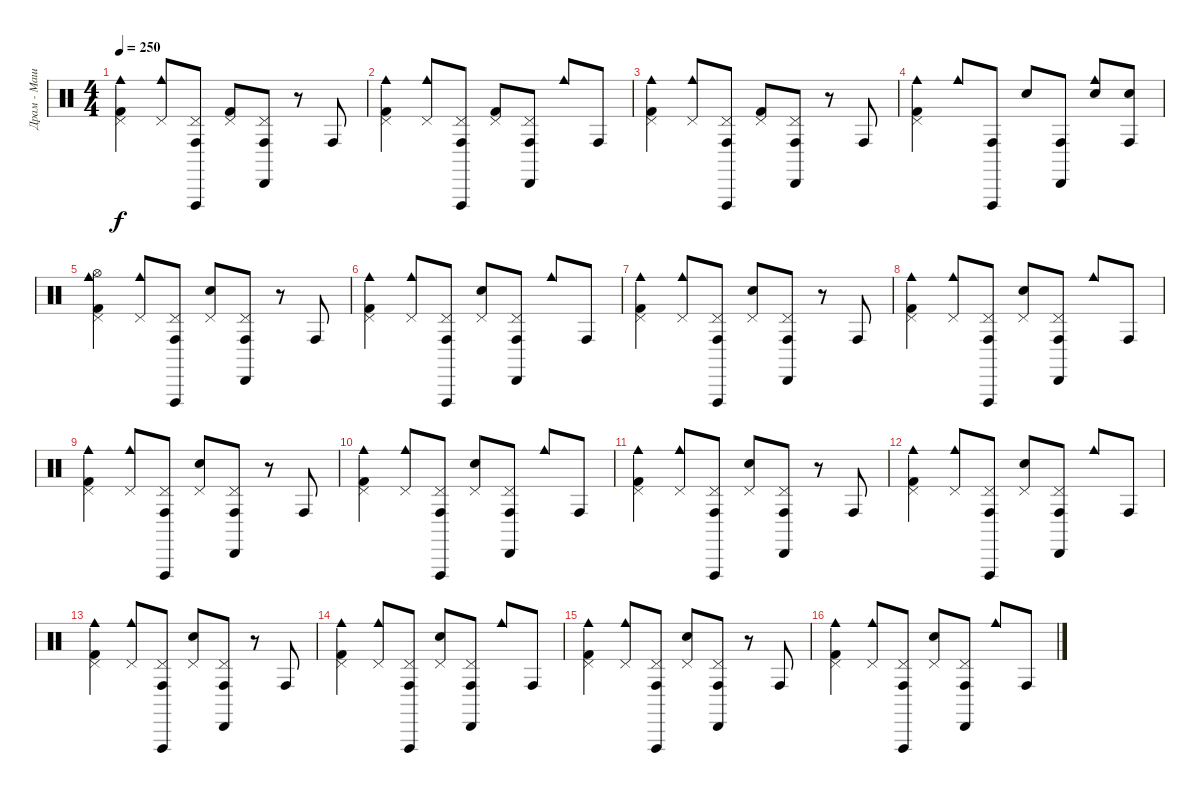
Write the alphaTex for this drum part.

\track ("Драм - Машина" "Драм - Маш") {instrument percussion}
\staff {score}
\articulation defaults
\ts (4 4)
\tempo 250
\clef neutral
\ks c
("Cowbell medium (hit)" "Pedal Hi-Hat (hit)" "Kick (hit) 2").4{dy f} ("Cowbell medium (hit)" "Pedal Hi-Hat (hit)").8 ("Conga high (hit)" "Vibraslap (hit)" "Pedal Hi-Hat (hit)").8 ("Pedal Hi-Hat (hit)" "Kick (hit) 2").8 ("Cabasa (hit)" "Conga high (hit)" "Pedal Hi-Hat (hit)").8 r.8 "Conga high (hit)".8 |
("Cowbell medium (hit)" "Pedal Hi-Hat (hit)" "Kick (hit) 2").4 ("Cowbell medium (hit)" "Pedal Hi-Hat (hit)").8 ("Conga high (hit)" "Vibraslap (hit)" "Pedal Hi-Hat (hit)").8 ("Pedal Hi-Hat (hit)" "Kick (hit) 2").8 ("Cabasa (hit)" "Conga high (hit)" "Pedal Hi-Hat (hit)").8 "Cowbell medium (hit)".8 "Conga high (hit)".8 |
("Cowbell medium (hit)" "Pedal Hi-Hat (hit)" "Kick (hit) 2").4 ("Cowbell medium (hit)" "Pedal Hi-Hat (hit)").8 ("Conga high (hit)" "Vibraslap (hit)" "Pedal Hi-Hat (hit)").8 ("Pedal Hi-Hat (hit)" "Kick (hit) 2").8 ("Cabasa (hit)" "Conga high (hit)" "Pedal Hi-Hat (hit)").8 r.8 "Conga high (hit)".8 |
("Cowbell medium (hit)" "Pedal Hi-Hat (hit)" "Kick (hit) 2").4 "Cowbell medium (hit)".8 ("Conga high (hit)" "Vibraslap (hit)").8 "Snare (hit) 2".8 ("Cabasa (hit)" "Conga high (hit)").8 ("Cowbell medium (hit)" "Snare (hit) 2").8 ("Conga high (hit)" "Snare (hit) 2").8 |
("Cowbell medium (hit)" "Hi-Hat (open)" "Pedal Hi-Hat (hit)" "Kick (hit) 2").4 ("Cowbell medium (hit)" "Pedal Hi-Hat (hit)").8 ("Conga high (hit)" "Vibraslap (hit)" "Pedal Hi-Hat (hit)").8 ("Pedal Hi-Hat (hit)" "Snare (hit) 2").8 ("Cabasa (hit)" "Conga high (hit)" "Pedal Hi-Hat (hit)").8 r.8 "Conga high (hit)".8 |
("Cowbell medium (hit)" "Pedal Hi-Hat (hit)" "Kick (hit) 2").4 ("Cowbell medium (hit)" "Pedal Hi-Hat (hit)").8 ("Conga high (hit)" "Vibraslap (hit)" "Pedal Hi-Hat (hit)").8 ("Pedal Hi-Hat (hit)" "Snare (hit) 2").8 ("Cabasa (hit)" "Conga high (hit)" "Pedal Hi-Hat (hit)").8 "Cowbell medium (hit)".8 "Conga high (hit)".8 |
("Cowbell medium (hit)" "Pedal Hi-Hat (hit)" "Kick (hit) 2").4 ("Cowbell medium (hit)" "Pedal Hi-Hat (hit)").8 ("Conga high (hit)" "Vibraslap (hit)" "Pedal Hi-Hat (hit)").8 ("Pedal Hi-Hat (hit)" "Snare (hit) 2").8 ("Cabasa (hit)" "Conga high (hit)" "Pedal Hi-Hat (hit)").8 r.8 "Conga high (hit)".8 |
("Cowbell medium (hit)" "Pedal Hi-Hat (hit)" "Kick (hit) 2").4 ("Cowbell medium (hit)" "Pedal Hi-Hat (hit)").8 ("Conga high (hit)" "Vibraslap (hit)" "Pedal Hi-Hat (hit)").8 ("Pedal Hi-Hat (hit)" "Snare (hit) 2").8 ("Cabasa (hit)" "Conga high (hit)" "Pedal Hi-Hat (hit)").8 "Cowbell medium (hit)".8 "Conga high (hit)".8 |
("Cowbell medium (hit)" "Pedal Hi-Hat (hit)" "Kick (hit) 2").4 ("Cowbell medium (hit)" "Pedal Hi-Hat (hit)").8 ("Conga high (hit)" "Vibraslap (hit)" "Pedal Hi-Hat (hit)").8 ("Pedal Hi-Hat (hit)" "Snare (hit) 2").8 ("Cabasa (hit)" "Conga high (hit)" "Pedal Hi-Hat (hit)").8 r.8 "Conga high (hit)".8 |
("Cowbell medium (hit)" "Pedal Hi-Hat (hit)" "Kick (hit) 2").4 ("Cowbell medium (hit)" "Pedal Hi-Hat (hit)").8 ("Conga high (hit)" "Vibraslap (hit)" "Pedal Hi-Hat (hit)").8 ("Pedal Hi-Hat (hit)" "Snare (hit) 2").8 ("Cabasa (hit)" "Conga high (hit)" "Pedal Hi-Hat (hit)").8 "Cowbell medium (hit)".8 "Conga high (hit)".8 |
("Cowbell medium (hit)" "Pedal Hi-Hat (hit)" "Kick (hit) 2").4 ("Cowbell medium (hit)" "Pedal Hi-Hat (hit)").8 ("Conga high (hit)" "Vibraslap (hit)" "Pedal Hi-Hat (hit)").8 ("Pedal Hi-Hat (hit)" "Snare (hit) 2").8 ("Cabasa (hit)" "Conga high (hit)" "Pedal Hi-Hat (hit)").8 r.8 "Conga high (hit)".8 |
("Cowbell medium (hit)" "Pedal Hi-Hat (hit)" "Kick (hit) 2").4 ("Cowbell medium (hit)" "Pedal Hi-Hat (hit)").8 ("Conga high (hit)" "Vibraslap (hit)" "Pedal Hi-Hat (hit)").8 ("Pedal Hi-Hat (hit)" "Snare (hit) 2").8 ("Cabasa (hit)" "Conga high (hit)" "Pedal Hi-Hat (hit)").8 "Cowbell medium (hit)".8 "Conga high (hit)".8 |
("Cowbell medium (hit)" "Pedal Hi-Hat (hit)" "Kick (hit) 2").4 ("Cowbell medium (hit)" "Pedal Hi-Hat (hit)").8 ("Conga high (hit)" "Vibraslap (hit)" "Pedal Hi-Hat (hit)").8 ("Pedal Hi-Hat (hit)" "Snare (hit) 2").8 ("Cabasa (hit)" "Conga high (hit)" "Pedal Hi-Hat (hit)").8 r.8 "Conga high (hit)".8 |
("Cowbell medium (hit)" "Pedal Hi-Hat (hit)" "Kick (hit) 2").4 ("Cowbell medium (hit)" "Pedal Hi-Hat (hit)").8 ("Conga high (hit)" "Vibraslap (hit)" "Pedal Hi-Hat (hit)").8 ("Pedal Hi-Hat (hit)" "Snare (hit) 2").8 ("Cabasa (hit)" "Conga high (hit)" "Pedal Hi-Hat (hit)").8 "Cowbell medium (hit)".8 "Conga high (hit)".8 |
("Cowbell medium (hit)" "Pedal Hi-Hat (hit)" "Kick (hit) 2").4 ("Cowbell medium (hit)" "Pedal Hi-Hat (hit)").8 ("Conga high (hit)" "Vibraslap (hit)" "Pedal Hi-Hat (hit)").8 ("Pedal Hi-Hat (hit)" "Snare (hit) 2").8 ("Cabasa (hit)" "Conga high (hit)" "Pedal Hi-Hat (hit)").8 r.8 "Conga high (hit)".8 |
("Cowbell medium (hit)" "Pedal Hi-Hat (hit)" "Kick (hit) 2").4 ("Cowbell medium (hit)" "Pedal Hi-Hat (hit)").8 ("Conga high (hit)" "Vibraslap (hit)" "Pedal Hi-Hat (hit)").8 ("Pedal Hi-Hat (hit)" "Snare (hit) 2").8 ("Cabasa (hit)" "Conga high (hit)" "Pedal Hi-Hat (hit)").8 "Cowbell medium (hit)".8 "Conga high (hit)".8
